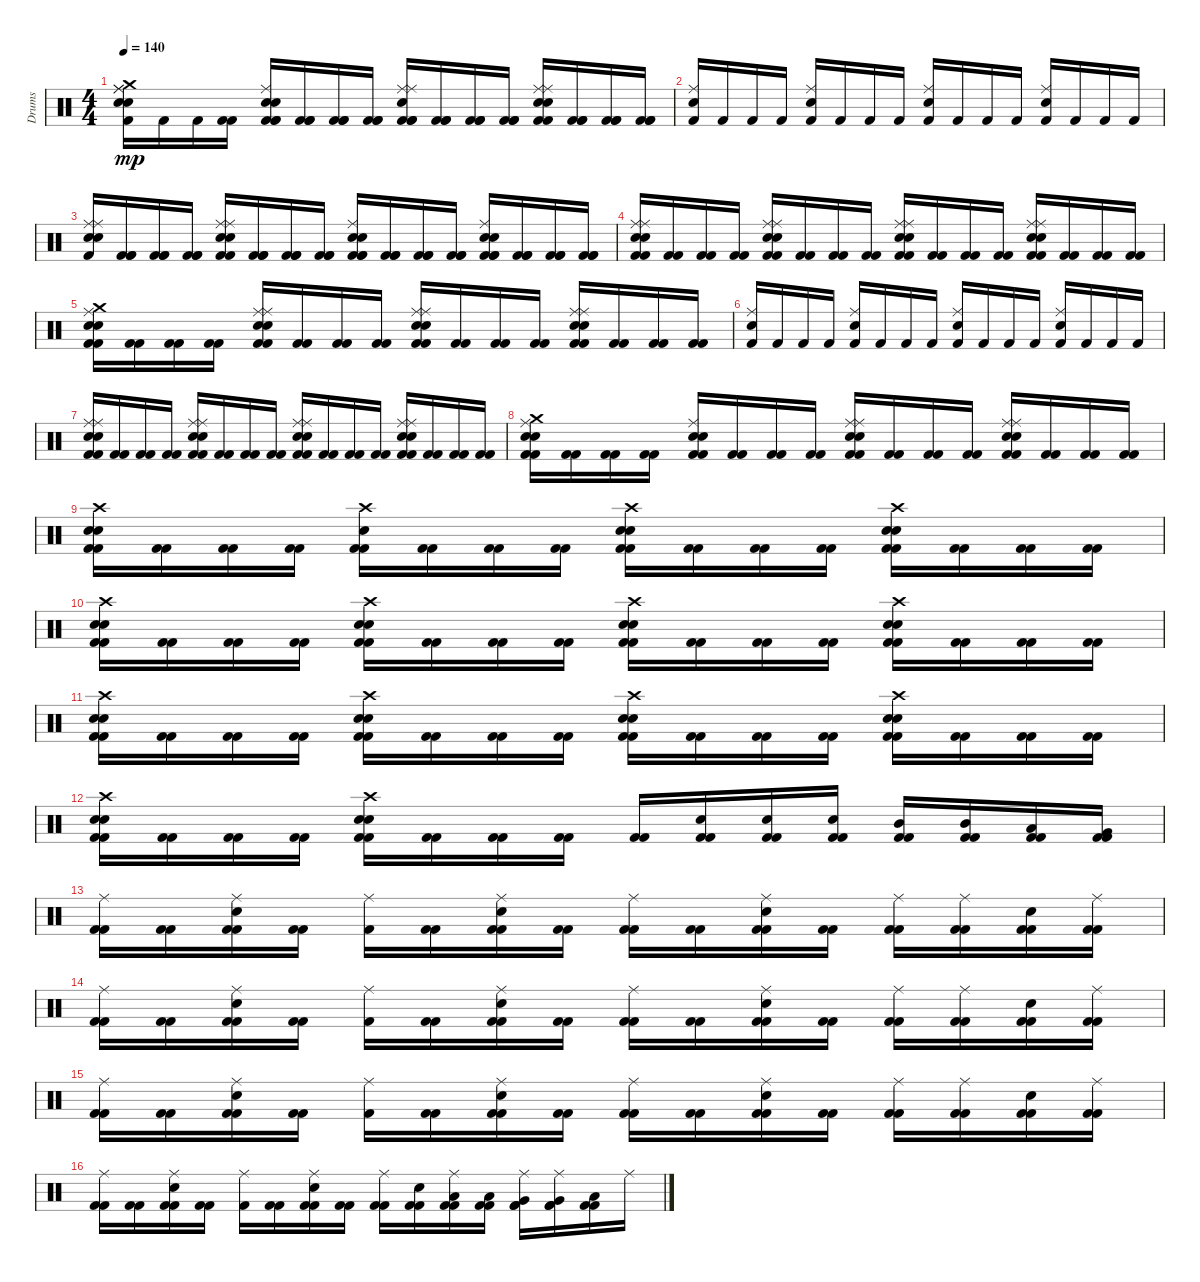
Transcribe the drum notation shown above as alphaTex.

\track ("Drums" "Drums") {instrument percussion}
\staff {score}
\articulation defaults
\ts (4 4)
\tempo 140
\clef neutral
\ks c
("Crash medium (hit)" "Electric Snare (hit)" "Ride (middle)" "Kick (hit) 2" "Electric Snare (hit)" "Ride (middle)").16{dy mp} "Kick (hit) 2".16 "Kick (hit) 2".16 ("Kick (hit) 2" "Kick (hit) 2").16 ("Kick (hit) 2" "Electric Snare (hit)" "Kick (hit) 2" "Kick (hit) 2" "Ride (middle)" "Electric Snare (hit)").16 ("Kick (hit) 2" "Kick (hit) 2" "Kick (hit) 2").16 ("Kick (hit) 2" "Kick (hit) 2" "Kick (hit) 2").16 ("Kick (hit) 2" "Kick (hit) 2" "Kick (hit) 2").16 ("Kick (hit) 2" "Ride (middle)" "Electric Snare (hit)" "Kick (hit) 2" "Ride (middle)" "Kick (hit) 2").16 ("Kick (hit) 2" "Kick (hit) 2" "Kick (hit) 2").16 ("Kick (hit) 2" "Kick (hit) 2" "Kick (hit) 2").16 ("Kick (hit) 2" "Kick (hit) 2" "Kick (hit) 2").16 ("Electric Snare (hit)" "Ride (middle)" "Kick (hit) 2" "Ride (middle)" "Electric Snare (hit)" "Kick (hit) 2").16 ("Kick (hit) 2" "Kick (hit) 2" "Kick (hit) 2").16 ("Kick (hit) 2" "Kick (hit) 2" "Kick (hit) 2").16 ("Kick (hit) 2" "Kick (hit) 2" "Kick (hit) 2").16 |
("Ride (middle)" "Electric Snare (hit)" "Kick (hit) 2").16 "Kick (hit) 2".16 "Kick (hit) 2".16 "Kick (hit) 2".16 ("Electric Snare (hit)" "Ride (middle)" "Kick (hit) 2").16 "Kick (hit) 2".16 "Kick (hit) 2".16 "Kick (hit) 2".16 ("Ride (middle)" "Kick (hit) 2" "Electric Snare (hit)").16 "Kick (hit) 2".16 "Kick (hit) 2".16 "Kick (hit) 2".16 ("Electric Snare (hit)" "Kick (hit) 2" "Ride (middle)").16 "Kick (hit) 2".16 "Kick (hit) 2".16 "Kick (hit) 2".16 |
("Kick (hit) 2" "Ride (middle)" "Electric Snare (hit)" "Ride (middle)" "Electric Snare (hit)").16 ("Kick (hit) 2" "Kick (hit) 2" "Kick (hit) 2").16 ("Kick (hit) 2" "Kick (hit) 2" "Kick (hit) 2").16 ("Kick (hit) 2" "Kick (hit) 2" "Kick (hit) 2").16 ("Ride (middle)" "Electric Snare (hit)" "Kick (hit) 2" "Kick (hit) 2" "Ride (middle)" "Electric Snare (hit)").16 ("Kick (hit) 2" "Kick (hit) 2" "Kick (hit) 2").16 ("Kick (hit) 2" "Kick (hit) 2" "Kick (hit) 2").16 ("Kick (hit) 2" "Kick (hit) 2" "Kick (hit) 2").16 ("Electric Snare (hit)" "Kick (hit) 2" "Electric Snare (hit)" "Kick (hit) 2" "Ride (middle)" "Kick (hit) 2").16 ("Kick (hit) 2" "Kick (hit) 2" "Kick (hit) 2").16 ("Kick (hit) 2" "Kick (hit) 2" "Kick (hit) 2").16 ("Kick (hit) 2" "Kick (hit) 2" "Kick (hit) 2").16 ("Ride (middle)" "Kick (hit) 2" "Kick (hit) 2" "Electric Snare (hit)" "Electric Snare (hit)" "Kick (hit) 2").16 ("Kick (hit) 2" "Kick (hit) 2" "Kick (hit) 2").16 ("Kick (hit) 2" "Kick (hit) 2" "Kick (hit) 2").16 ("Kick (hit) 2" "Kick (hit) 2" "Kick (hit) 2").16 |
("Ride (middle)" "Kick (hit) 2" "Electric Snare (hit)" "Ride (middle)" "Electric Snare (hit)" "Kick (hit) 2").16 ("Kick (hit) 2" "Kick (hit) 2").16 ("Kick (hit) 2" "Kick (hit) 2").16 ("Kick (hit) 2" "Kick (hit) 2").16 ("Kick (hit) 2" "Electric Snare (hit)" "Ride (middle)" "Ride (middle)" "Electric Snare (hit)" "Kick (hit) 2").16 ("Kick (hit) 2" "Kick (hit) 2").16 ("Kick (hit) 2" "Kick (hit) 2").16 ("Kick (hit) 2" "Kick (hit) 2").16 ("Ride (middle)" "Ride (middle)" "Kick (hit) 2" "Electric Snare (hit)" "Electric Snare (hit)" "Kick (hit) 2").16 ("Kick (hit) 2" "Kick (hit) 2").16 ("Kick (hit) 2" "Kick (hit) 2").16 ("Kick (hit) 2" "Kick (hit) 2").16 ("Electric Snare (hit)" "Kick (hit) 2" "Electric Snare (hit)" "Ride (middle)" "Ride (middle)" "Kick (hit) 2").16 ("Kick (hit) 2" "Kick (hit) 2").16 ("Kick (hit) 2" "Kick (hit) 2").16 ("Kick (hit) 2" "Kick (hit) 2").16 |
("Electric Snare (hit)" "Kick (hit) 2" "Kick (hit) 2" "Crash medium (hit)" "Electric Snare (hit)" "Ride (middle)").16 ("Kick (hit) 2" "Kick (hit) 2").16 ("Kick (hit) 2" "Kick (hit) 2").16 ("Kick (hit) 2" "Kick (hit) 2").16 ("Ride (middle)" "Kick (hit) 2" "Electric Snare (hit)" "Kick (hit) 2" "Ride (middle)" "Electric Snare (hit)").16 ("Kick (hit) 2" "Kick (hit) 2").16 ("Kick (hit) 2" "Kick (hit) 2").16 ("Kick (hit) 2" "Kick (hit) 2").16 ("Electric Snare (hit)" "Electric Snare (hit)" "Ride (middle)" "Kick (hit) 2" "Kick (hit) 2" "Ride (middle)").16 ("Kick (hit) 2" "Kick (hit) 2").16 ("Kick (hit) 2" "Kick (hit) 2").16 ("Kick (hit) 2" "Kick (hit) 2").16 ("Electric Snare (hit)" "Kick (hit) 2" "Electric Snare (hit)" "Ride (middle)" "Ride (middle)" "Kick (hit) 2").16 ("Kick (hit) 2" "Kick (hit) 2").16 ("Kick (hit) 2" "Kick (hit) 2").16 ("Kick (hit) 2" "Kick (hit) 2").16 |
("Electric Snare (hit)" "Kick (hit) 2" "Ride (middle)").16 "Kick (hit) 2".16 "Kick (hit) 2".16 "Kick (hit) 2".16 ("Ride (middle)" "Electric Snare (hit)" "Kick (hit) 2").16 "Kick (hit) 2".16 "Kick (hit) 2".16 "Kick (hit) 2".16 ("Kick (hit) 2" "Ride (middle)" "Electric Snare (hit)").16 "Kick (hit) 2".16 "Kick (hit) 2".16 "Kick (hit) 2".16 ("Ride (middle)" "Kick (hit) 2" "Electric Snare (hit)").16 "Kick (hit) 2".16 "Kick (hit) 2".16 "Kick (hit) 2".16 |
("Electric Snare (hit)" "Ride (middle)" "Kick (hit) 2" "Ride (middle)" "Electric Snare (hit)" "Kick (hit) 2").16 ("Kick (hit) 2" "Kick (hit) 2").16 ("Kick (hit) 2" "Kick (hit) 2").16 ("Kick (hit) 2" "Kick (hit) 2").16 ("Kick (hit) 2" "Ride (middle)" "Electric Snare (hit)" "Kick (hit) 2" "Ride (middle)" "Electric Snare (hit)").16 ("Kick (hit) 2" "Kick (hit) 2").16 ("Kick (hit) 2" "Kick (hit) 2").16 ("Kick (hit) 2" "Kick (hit) 2").16 ("Electric Snare (hit)" "Ride (middle)" "Ride (middle)" "Kick (hit) 2" "Kick (hit) 2" "Electric Snare (hit)").16 ("Kick (hit) 2" "Kick (hit) 2").16 ("Kick (hit) 2" "Kick (hit) 2").16 ("Kick (hit) 2" "Kick (hit) 2").16 ("Electric Snare (hit)" "Kick (hit) 2" "Ride (middle)" "Ride (middle)" "Electric Snare (hit)" "Kick (hit) 2").16 ("Kick (hit) 2" "Kick (hit) 2").16 ("Kick (hit) 2" "Kick (hit) 2").16 ("Kick (hit) 2" "Kick (hit) 2").16 |
("Electric Snare (hit)" "Kick (hit) 2" "Crash medium (hit)" "Kick (hit) 2" "Electric Snare (hit)" "Ride (middle)").16 ("Kick (hit) 2" "Kick (hit) 2").16 ("Kick (hit) 2" "Kick (hit) 2").16 ("Kick (hit) 2" "Kick (hit) 2").16 ("Electric Snare (hit)" "Kick (hit) 2" "Electric Snare (hit)" "Kick (hit) 2" "Ride (middle)").16 ("Kick (hit) 2" "Kick (hit) 2").16 ("Kick (hit) 2" "Kick (hit) 2").16 ("Kick (hit) 2" "Kick (hit) 2").16 ("Kick (hit) 2" "Electric Snare (hit)" "Ride (middle)" "Kick (hit) 2" "Ride (middle)" "Electric Snare (hit)").16 ("Kick (hit) 2" "Kick (hit) 2").16 ("Kick (hit) 2" "Kick (hit) 2").16 ("Kick (hit) 2" "Kick (hit) 2").16 ("Ride (middle)" "Kick (hit) 2" "Electric Snare (hit)" "Kick (hit) 2" "Electric Snare (hit)" "Ride (middle)").16 ("Kick (hit) 2" "Kick (hit) 2").16 ("Kick (hit) 2" "Kick (hit) 2").16 ("Kick (hit) 2" "Kick (hit) 2").16 |
("Kick (hit) 2" "Kick (hit) 2" "Electric Snare (hit)" "Electric Snare (hit)" "Crash high (hit)").16 ("Kick (hit) 2" "Kick (hit) 2").16 ("Kick (hit) 2" "Kick (hit) 2").16 ("Kick (hit) 2" "Kick (hit) 2").16 ("Kick (hit) 2" "Kick (hit) 2" "Electric Snare (hit)" "Crash high (hit)").16 ("Kick (hit) 2" "Kick (hit) 2").16 ("Kick (hit) 2" "Kick (hit) 2").16 ("Kick (hit) 2" "Kick (hit) 2").16 ("Kick (hit) 2" "Crash high (hit)" "Kick (hit) 2" "Electric Snare (hit)" "Electric Snare (hit)").16 ("Kick (hit) 2" "Kick (hit) 2").16 ("Kick (hit) 2" "Kick (hit) 2").16 ("Kick (hit) 2" "Kick (hit) 2").16 ("Crash high (hit)" "Kick (hit) 2" "Electric Snare (hit)" "Electric Snare (hit)" "Kick (hit) 2").16 ("Kick (hit) 2" "Kick (hit) 2").16 ("Kick (hit) 2" "Kick (hit) 2").16 ("Kick (hit) 2" "Kick (hit) 2").16 |
("Electric Snare (hit)" "Kick (hit) 2" "Crash high (hit)" "Kick (hit) 2" "Electric Snare (hit)").16 ("Kick (hit) 2" "Kick (hit) 2").16 ("Kick (hit) 2" "Kick (hit) 2").16 ("Kick (hit) 2" "Kick (hit) 2").16 ("Electric Snare (hit)" "Kick (hit) 2" "Kick (hit) 2" "Crash high (hit)" "Electric Snare (hit)").16 ("Kick (hit) 2" "Kick (hit) 2").16 ("Kick (hit) 2" "Kick (hit) 2").16 ("Kick (hit) 2" "Kick (hit) 2").16 ("Kick (hit) 2" "Kick (hit) 2" "Crash high (hit)" "Electric Snare (hit)" "Electric Snare (hit)").16 ("Kick (hit) 2" "Kick (hit) 2").16 ("Kick (hit) 2" "Kick (hit) 2").16 ("Kick (hit) 2" "Kick (hit) 2").16 ("Electric Snare (hit)" "Electric Snare (hit)" "Crash high (hit)" "Kick (hit) 2" "Kick (hit) 2").16 ("Kick (hit) 2" "Kick (hit) 2").16 ("Kick (hit) 2" "Kick (hit) 2").16 ("Kick (hit) 2" "Kick (hit) 2").16 |
("Electric Snare (hit)" "Kick (hit) 2" "Crash high (hit)" "Electric Snare (hit)" "Kick (hit) 2").16 ("Kick (hit) 2" "Kick (hit) 2").16 ("Kick (hit) 2" "Kick (hit) 2").16 ("Kick (hit) 2" "Kick (hit) 2").16 ("Crash high (hit)" "Electric Snare (hit)" "Kick (hit) 2" "Kick (hit) 2" "Electric Snare (hit)").16 ("Kick (hit) 2" "Kick (hit) 2").16 ("Kick (hit) 2" "Kick (hit) 2").16 ("Kick (hit) 2" "Kick (hit) 2").16 ("Kick (hit) 2" "Electric Snare (hit)" "Crash high (hit)" "Kick (hit) 2" "Electric Snare (hit)").16 ("Kick (hit) 2" "Kick (hit) 2").16 ("Kick (hit) 2" "Kick (hit) 2").16 ("Kick (hit) 2" "Kick (hit) 2").16 ("Crash high (hit)" "Kick (hit) 2" "Electric Snare (hit)" "Kick (hit) 2" "Electric Snare (hit)").16 ("Kick (hit) 2" "Kick (hit) 2").16 ("Kick (hit) 2" "Kick (hit) 2").16 ("Kick (hit) 2" "Kick (hit) 2").16 |
("Kick (hit) 2" "Electric Snare (hit)" "Kick (hit) 2" "Crash high (hit)" "Electric Snare (hit)").16 ("Kick (hit) 2" "Kick (hit) 2").16 ("Kick (hit) 2" "Kick (hit) 2").16 ("Kick (hit) 2" "Kick (hit) 2").16 ("Electric Snare (hit)" "Electric Snare (hit)" "Kick (hit) 2" "Kick (hit) 2" "Crash high (hit)").16 ("Kick (hit) 2" "Kick (hit) 2").16 ("Kick (hit) 2" "Kick (hit) 2").16 ("Kick (hit) 2" "Kick (hit) 2").16 ("Kick (hit) 2" "Kick (hit) 2").16 ("Kick (hit) 2" "Electric Snare (hit)" "Kick (hit) 2").16 ("Kick (hit) 2" "Kick (hit) 2" "Electric Snare (hit)").16 ("Kick (hit) 2" "Electric Snare (hit)" "Kick (hit) 2").16 ("Mid Tom (hit)" "Kick (hit) 2" "Kick (hit) 2").16 ("Mid Tom (hit)" "Kick (hit) 2" "Kick (hit) 2").16 ("Kick (hit) 2" "Kick (hit) 2" "Low Tom (hit)").16 ("Very Low Tom (hit)" "Kick (hit) 2" "Kick (hit) 2").16 |
("Ride (middle)" "Kick (hit) 2" "Kick (hit) 2").16 ("Kick (hit) 2" "Kick (hit) 2").16 ("Electric Snare (hit)" "Ride (middle)" "Kick (hit) 2" "Kick (hit) 2").16 ("Kick (hit) 2" "Kick (hit) 2").16 ("Ride (middle)" "Kick (hit) 2").16 ("Kick (hit) 2" "Kick (hit) 2").16 ("Electric Snare (hit)" "Ride (middle)" "Kick (hit) 2" "Kick (hit) 2").16 ("Kick (hit) 2" "Kick (hit) 2").16 ("Kick (hit) 2" "Ride (middle)" "Kick (hit) 2").16 ("Kick (hit) 2" "Kick (hit) 2").16 ("Electric Snare (hit)" "Ride (middle)" "Kick (hit) 2" "Kick (hit) 2").16 ("Kick (hit) 2" "Kick (hit) 2").16 ("Kick (hit) 2" "Ride (middle)" "Kick (hit) 2").16 ("Kick (hit) 2" "Ride (middle)" "Kick (hit) 2").16 ("Kick (hit) 2" "Electric Snare (hit)" "Kick (hit) 2").16 ("Kick (hit) 2" "Ride (middle)" "Kick (hit) 2").16 |
("Ride (middle)" "Kick (hit) 2" "Kick (hit) 2").16 ("Kick (hit) 2" "Kick (hit) 2").16 ("Ride (middle)" "Electric Snare (hit)" "Kick (hit) 2" "Kick (hit) 2").16 ("Kick (hit) 2" "Kick (hit) 2").16 ("Ride (middle)" "Kick (hit) 2").16 ("Kick (hit) 2" "Kick (hit) 2").16 ("Electric Snare (hit)" "Ride (middle)" "Kick (hit) 2" "Kick (hit) 2").16 ("Kick (hit) 2" "Kick (hit) 2").16 ("Ride (middle)" "Kick (hit) 2" "Kick (hit) 2").16 ("Kick (hit) 2" "Kick (hit) 2").16 ("Ride (middle)" "Kick (hit) 2" "Kick (hit) 2" "Electric Snare (hit)").16 ("Kick (hit) 2" "Kick (hit) 2").16 ("Ride (middle)" "Kick (hit) 2" "Kick (hit) 2").16 ("Ride (middle)" "Kick (hit) 2" "Kick (hit) 2").16 ("Kick (hit) 2" "Kick (hit) 2" "Electric Snare (hit)").16 ("Kick (hit) 2" "Ride (middle)" "Kick (hit) 2").16 |
("Kick (hit) 2" "Kick (hit) 2" "Ride (middle)").16 ("Kick (hit) 2" "Kick (hit) 2").16 ("Kick (hit) 2" "Ride (middle)" "Electric Snare (hit)" "Kick (hit) 2").16 ("Kick (hit) 2" "Kick (hit) 2").16 ("Kick (hit) 2" "Ride (middle)").16 ("Kick (hit) 2" "Kick (hit) 2").16 ("Kick (hit) 2" "Ride (middle)" "Electric Snare (hit)" "Kick (hit) 2").16 ("Kick (hit) 2" "Kick (hit) 2").16 ("Kick (hit) 2" "Kick (hit) 2" "Ride (middle)").16 ("Kick (hit) 2" "Kick (hit) 2").16 ("Kick (hit) 2" "Electric Snare (hit)" "Kick (hit) 2" "Ride (middle)").16 ("Kick (hit) 2" "Kick (hit) 2").16 ("Kick (hit) 2" "Ride (middle)" "Kick (hit) 2").16 ("Kick (hit) 2" "Ride (middle)" "Kick (hit) 2").16 ("Kick (hit) 2" "Kick (hit) 2" "Electric Snare (hit)").16 ("Kick (hit) 2" "Ride (middle)" "Kick (hit) 2").16 |
("Ride (middle)" "Kick (hit) 2" "Kick (hit) 2").16 ("Kick (hit) 2" "Kick (hit) 2").16 ("Kick (hit) 2" "Ride (middle)" "Electric Snare (hit)" "Kick (hit) 2").16 ("Kick (hit) 2" "Kick (hit) 2").16 ("Ride (middle)" "Kick (hit) 2").16 ("Kick (hit) 2" "Kick (hit) 2").16 ("Electric Snare (hit)" "Kick (hit) 2" "Kick (hit) 2" "Ride (middle)").16 ("Kick (hit) 2" "Kick (hit) 2").16 ("Kick (hit) 2" "Ride (middle)" "Kick (hit) 2").16 ("Kick (hit) 2" "Kick (hit) 2" "Electric Snare (hit)").16 ("Kick (hit) 2" "Ride (middle)" "Low Tom (hit)" "Kick (hit) 2").16 ("Low Floor Tom (hit)" "Kick (hit) 2" "Kick (hit) 2").16 ("Ride (middle)" "Very Low Tom (hit)" "Kick (hit) 2" "Kick (hit) 2").16 ("Kick (hit) 2" "Ride (middle)" "Kick (hit) 2" "Very Low Tom (hit)").16 ("Kick (hit) 2" "Kick (hit) 2" "Low Floor Tom (hit)").16 "Ride (middle)".16
